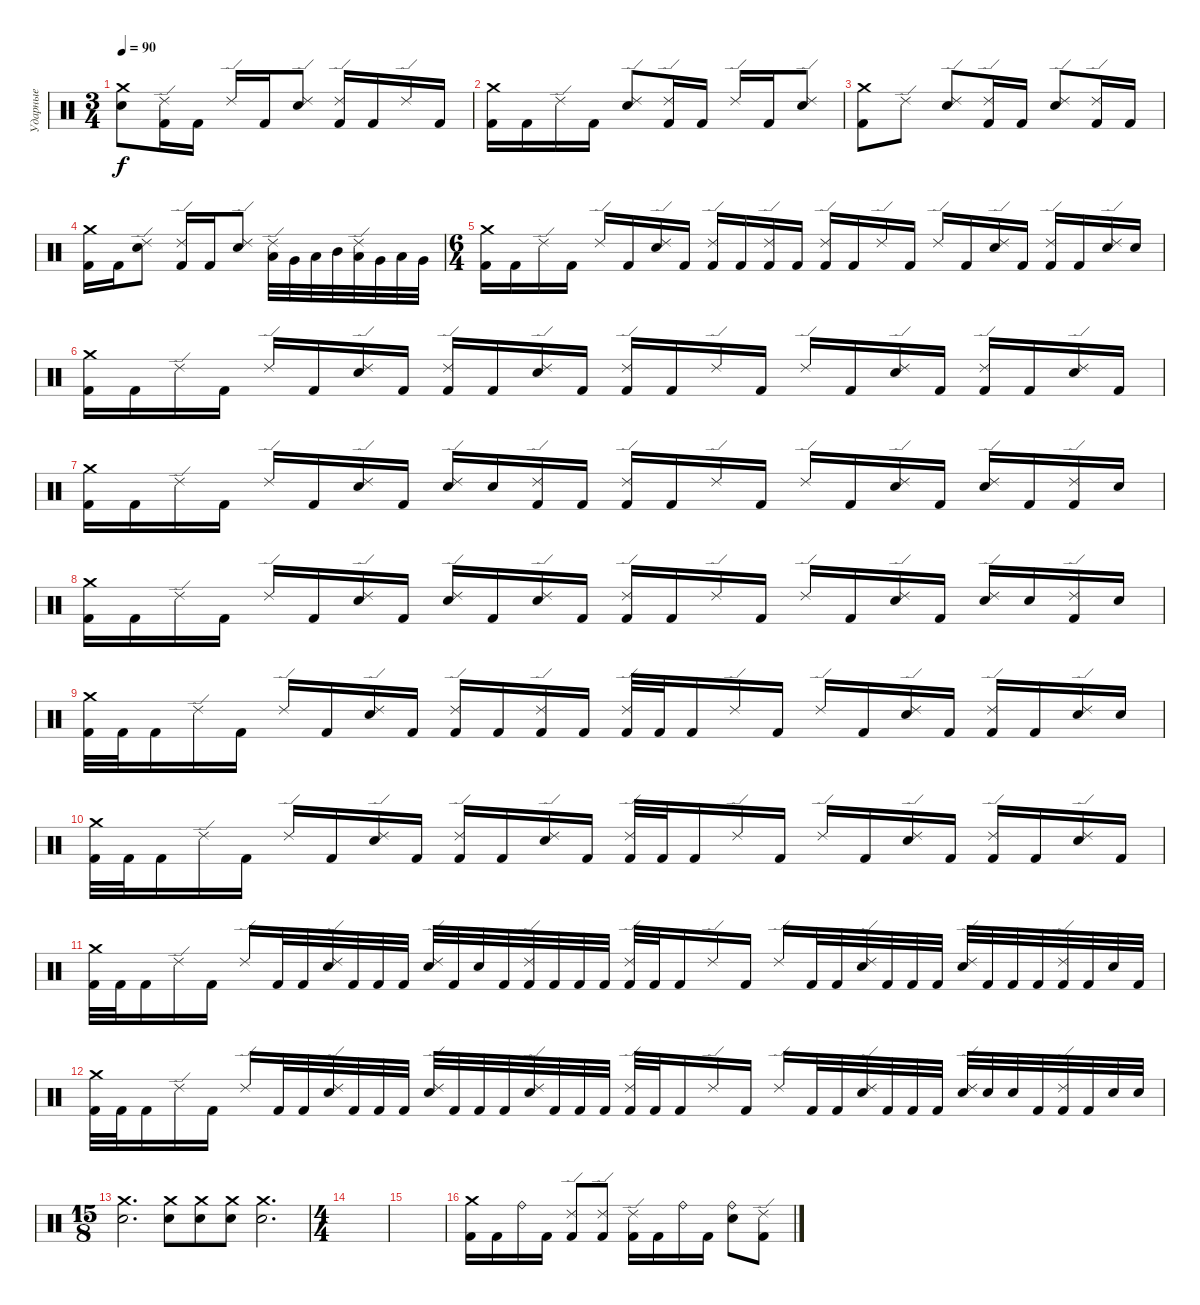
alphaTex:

\track ("Ударные" "Ударные") {instrument percussion}
\staff {score}
\articulation defaults
\ts (3 4)
\tempo 90
\clef neutral
\ks c
("Crash medium (hit)" "Electric Snare (hit)").8{dy f} ("Ride (edge) 2" "Kick (hit) 2").16 "Kick (hit) 2".16 "Ride (edge) 2".16 "Kick (hit) 2".16 ("Ride (edge) 2" "Electric Snare (hit)").8 ("Ride (edge) 2" "Kick (hit) 2").16 "Kick (hit) 2".16 "Ride (edge) 2".16 "Kick (hit) 2".16 |
("Crash medium (hit)" "Kick (hit) 2").16 "Kick (hit) 2".16 "Ride (edge) 2".16 "Kick (hit) 2".16 ("Ride (edge) 2" "Electric Snare (hit)").8 ("Ride (edge) 2" "Kick (hit) 2").16 "Kick (hit) 2".16 "Ride (edge) 2".16 "Kick (hit) 2".16 ("Ride (edge) 2" "Electric Snare (hit)").8 |
("Crash medium (hit)" "Kick (hit) 2").8 "Ride (edge) 2".8 ("Ride (edge) 2" "Electric Snare (hit)").8 ("Ride (edge) 2" "Kick (hit) 2").16 "Kick (hit) 2".16 ("Ride (edge) 2" "Electric Snare (hit)").8 ("Ride (edge) 2" "Kick (hit) 2").16 "Kick (hit) 2".16 |
("Crash medium (hit)" "Kick (hit) 2").16 "Kick (hit) 2".16 ("Ride (edge) 2" "Electric Snare (hit)").8 ("Ride (edge) 2" "Kick (hit) 2").16 "Kick (hit) 2".16 ("Ride (edge) 2" "Electric Snare (hit)").8 ("Low Floor Tom (hit)" "Ride (edge) 2").32 "Very Low Tom (hit)".32 "Low Tom (hit)".32 "Mid Tom (hit)".32 ("Low Tom (hit)" "Ride (edge) 2").32 "Very Low Tom (hit)".32 "Low Floor Tom (hit)".32 "Very Low Tom (hit)".32 |
\ts (6 4)
("Crash medium (hit)" "Kick (hit) 2").16 "Kick (hit) 2".16 "Ride (edge) 2".16 "Kick (hit) 2".16 "Ride (edge) 2".16 "Kick (hit) 2".16 ("Ride (edge) 2" "Electric Snare (hit)").16 "Kick (hit) 2".16 ("Ride (edge) 2" "Kick (hit) 2").16 "Kick (hit) 2".16 ("Ride (edge) 2" "Kick (hit) 2").16 "Kick (hit) 2".16 ("Ride (edge) 2" "Kick (hit) 2").16 "Kick (hit) 2".16 "Ride (edge) 2".16 "Kick (hit) 2".16 "Ride (edge) 2".16 "Kick (hit) 2".16 ("Ride (edge) 2" "Electric Snare (hit)").16 "Kick (hit) 2".16 ("Ride (edge) 2" "Kick (hit) 2").16 "Kick (hit) 2".16 ("Ride (edge) 2" "Electric Snare (hit)").16 "Electric Snare (hit)".16 |
("Crash medium (hit)" "Kick (hit) 2").16 "Kick (hit) 2".16 "Ride (edge) 2".16 "Kick (hit) 2".16 "Ride (edge) 2".16 "Kick (hit) 2".16 ("Ride (edge) 2" "Electric Snare (hit)").16 "Kick (hit) 2".16 ("Ride (edge) 2" "Kick (hit) 2").16 "Kick (hit) 2".16 ("Ride (edge) 2" "Electric Snare (hit)").16 "Kick (hit) 2".16 ("Ride (edge) 2" "Kick (hit) 2").16 "Kick (hit) 2".16 "Ride (edge) 2".16 "Kick (hit) 2".16 "Ride (edge) 2".16 "Kick (hit) 2".16 ("Ride (edge) 2" "Electric Snare (hit)").16 "Kick (hit) 2".16 ("Ride (edge) 2" "Kick (hit) 2").16 "Kick (hit) 2".16 ("Ride (edge) 2" "Electric Snare (hit)").16 "Kick (hit) 2".16 |
("Crash medium (hit)" "Kick (hit) 2").16 "Kick (hit) 2".16 "Ride (edge) 2".16 "Kick (hit) 2".16 "Ride (edge) 2".16 "Kick (hit) 2".16 ("Ride (edge) 2" "Electric Snare (hit)").16 "Kick (hit) 2".16 ("Ride (edge) 2" "Electric Snare (hit)").16 "Electric Snare (hit)".16 ("Ride (edge) 2" "Kick (hit) 2").16 "Kick (hit) 2".16 ("Ride (edge) 2" "Kick (hit) 2").16 "Kick (hit) 2".16 "Ride (edge) 2".16 "Kick (hit) 2".16 "Ride (edge) 2".16 "Kick (hit) 2".16 ("Ride (edge) 2" "Electric Snare (hit)").16 "Kick (hit) 2".16 ("Ride (edge) 2" "Electric Snare (hit)").16 "Kick (hit) 2".16 ("Ride (edge) 2" "Kick (hit) 2").16 "Electric Snare (hit)".16 |
("Crash medium (hit)" "Kick (hit) 2").16 "Kick (hit) 2".16 "Ride (edge) 2".16 "Kick (hit) 2".16 "Ride (edge) 2".16 "Kick (hit) 2".16 ("Ride (edge) 2" "Electric Snare (hit)").16 "Kick (hit) 2".16 ("Ride (edge) 2" "Electric Snare (hit)").16 "Kick (hit) 2".16 ("Ride (edge) 2" "Electric Snare (hit)").16 "Kick (hit) 2".16 ("Ride (edge) 2" "Kick (hit) 2").16 "Kick (hit) 2".16 "Ride (edge) 2".16 "Kick (hit) 2".16 "Ride (edge) 2".16 "Kick (hit) 2".16 ("Ride (edge) 2" "Electric Snare (hit)").16 "Kick (hit) 2".16 ("Ride (edge) 2" "Electric Snare (hit)").16 "Electric Snare (hit)".16 ("Ride (edge) 2" "Kick (hit) 2").16 "Electric Snare (hit)".16 |
("Crash medium (hit)" "Kick (hit) 2").32 "Kick (hit) 2".32 "Kick (hit) 2".16 "Ride (edge) 2".16 "Kick (hit) 2".16 "Ride (edge) 2".16 "Kick (hit) 2".16 ("Ride (edge) 2" "Electric Snare (hit)").16 "Kick (hit) 2".16 ("Ride (edge) 2" "Kick (hit) 2").16 "Kick (hit) 2".16 ("Ride (edge) 2" "Kick (hit) 2").16 "Kick (hit) 2".16 ("Ride (edge) 2" "Kick (hit) 2").32 "Kick (hit) 2".32 "Kick (hit) 2".16 "Ride (edge) 2".16 "Kick (hit) 2".16 "Ride (edge) 2".16 "Kick (hit) 2".16 ("Ride (edge) 2" "Electric Snare (hit)").16 "Kick (hit) 2".16 ("Ride (edge) 2" "Kick (hit) 2").16 "Kick (hit) 2".16 ("Ride (edge) 2" "Electric Snare (hit)").16 "Electric Snare (hit)".16 |
("Crash medium (hit)" "Kick (hit) 2").32 "Kick (hit) 2".32 "Kick (hit) 2".16 "Ride (edge) 2".16 "Kick (hit) 2".16 "Ride (edge) 2".16 "Kick (hit) 2".16 ("Ride (edge) 2" "Electric Snare (hit)").16 "Kick (hit) 2".16 ("Ride (edge) 2" "Kick (hit) 2").16 "Kick (hit) 2".16 ("Ride (edge) 2" "Electric Snare (hit)").16 "Kick (hit) 2".16 ("Ride (edge) 2" "Kick (hit) 2").32 "Kick (hit) 2".32 "Kick (hit) 2".16 "Ride (edge) 2".16 "Kick (hit) 2".16 "Ride (edge) 2".16 "Kick (hit) 2".16 ("Ride (edge) 2" "Electric Snare (hit)").16 "Kick (hit) 2".16 ("Ride (edge) 2" "Kick (hit) 2").16 "Kick (hit) 2".16 ("Ride (edge) 2" "Electric Snare (hit)").16 "Kick (hit) 2".16 |
("Crash medium (hit)" "Kick (hit) 2").32 "Kick (hit) 2".32 "Kick (hit) 2".16 "Ride (edge) 2".16 "Kick (hit) 2".16 "Ride (edge) 2".16 "Kick (hit) 2".32 "Kick (hit) 2".32 ("Ride (edge) 2" "Electric Snare (hit)").32 "Kick (hit) 2".32 "Kick (hit) 2".32 "Kick (hit) 2".32 ("Ride (edge) 2" "Electric Snare (hit)").32 "Kick (hit) 2".32 "Electric Snare (hit)".32 "Kick (hit) 2".32 ("Ride (edge) 2" "Kick (hit) 2").32 "Kick (hit) 2".32 "Kick (hit) 2".32 "Kick (hit) 2".32 ("Ride (edge) 2" "Kick (hit) 2").32 "Kick (hit) 2".32 "Kick (hit) 2".16 "Ride (edge) 2".16 "Kick (hit) 2".16 "Ride (edge) 2".16 "Kick (hit) 2".32 "Kick (hit) 2".32 ("Ride (edge) 2" "Electric Snare (hit)").32 "Kick (hit) 2".32 "Kick (hit) 2".32 "Kick (hit) 2".32 ("Ride (edge) 2" "Electric Snare (hit)").32 "Kick (hit) 2".32 "Kick (hit) 2".32 "Kick (hit) 2".32 ("Ride (edge) 2" "Kick (hit) 2").32 "Kick (hit) 2".32 "Electric Snare (hit)".32 "Kick (hit) 2".32 |
("Crash medium (hit)" "Kick (hit) 2").32 "Kick (hit) 2".32 "Kick (hit) 2".16 "Ride (edge) 2".16 "Kick (hit) 2".16 "Ride (edge) 2".16 "Kick (hit) 2".32 "Kick (hit) 2".32 ("Ride (edge) 2" "Electric Snare (hit)").32 "Kick (hit) 2".32 "Kick (hit) 2".32 "Kick (hit) 2".32 ("Ride (edge) 2" "Electric Snare (hit)").32 "Kick (hit) 2".32 "Kick (hit) 2".32 "Kick (hit) 2".32 ("Ride (edge) 2" "Electric Snare (hit)").32 "Kick (hit) 2".32 "Kick (hit) 2".32 "Kick (hit) 2".32 ("Ride (edge) 2" "Kick (hit) 2").32 "Kick (hit) 2".32 "Kick (hit) 2".16 "Ride (edge) 2".16 "Kick (hit) 2".16 "Ride (edge) 2".16 "Kick (hit) 2".32 "Kick (hit) 2".32 ("Ride (edge) 2" "Electric Snare (hit)").32 "Kick (hit) 2".32 "Kick (hit) 2".32 "Kick (hit) 2".32 ("Ride (edge) 2" "Electric Snare (hit)").32 "Electric Snare (hit)".32 "Electric Snare (hit)".32 "Kick (hit) 2".32 ("Ride (edge) 2" "Kick (hit) 2").32 "Kick (hit) 2".32 "Electric Snare (hit)".32 "Electric Snare (hit)".32 |
\ts (15 8)
("Crash medium (hit)" "Electric Snare (hit)").2{d} ("Crash medium (hit)" "Electric Snare (hit)").8 ("Crash medium (hit)" "Electric Snare (hit)").8 ("Crash medium (hit)" "Electric Snare (hit)").8 ("Crash medium (hit)" "Electric Snare (hit)").2{d} |
\ts (4 4)
|
|
("Crash medium (hit)" "Kick (hit) 2").16 "Kick (hit) 2".16 "Ride (bell)".16 "Kick (hit) 2".16 ("Ride (edge) 2" "Kick (hit) 2").8 ("Ride (edge) 2" "Kick (hit) 2").8 ("Ride (edge) 2" "Kick (hit) 2").16 "Kick (hit) 2".16 "Ride (bell)".16 "Kick (hit) 2".16 ("Ride (bell)" "Electric Snare (hit)").8 ("Ride (edge) 2" "Kick (hit) 2").8
